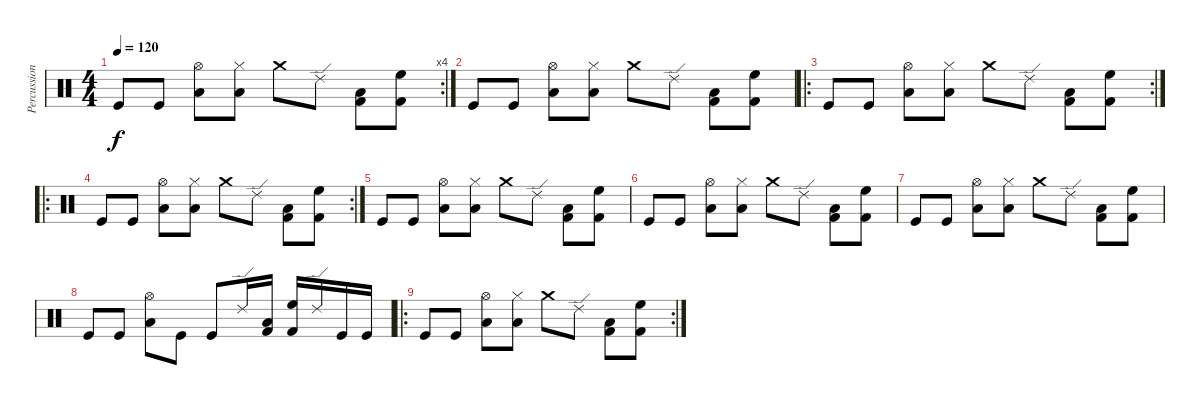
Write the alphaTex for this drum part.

\track ("Percussion" "Percussion") {instrument percussion}
\staff {score}
\articulation defaults
\rc 4
\ts (4 4)
\tempo 120
\clef neutral
\ks c "Kick (hit)".8{dy f} "Kick (hit)".8
("Low Tom (hit)" "Hi-Hat (open)").8 ("Low Tom (hit)" "Hi-Hat (closed)").8 "Crash medium (hit)".8 "Ride (edge) 2".8 ("Low Tom (hit)" "Kick (hit) 2").8 ("High Floor Tom (hit)" "Kick (hit) 2").8 |
"Kick (hit)".8 "Kick (hit)".8 ("Low Tom (hit)" "Hi-Hat (open)").8 ("Low Tom (hit)" "Hi-Hat (closed)").8 "Crash medium (hit)".8 "Ride (edge) 2".8 ("Low Tom (hit)" "Kick (hit) 2").8 ("High Floor Tom (hit)" "Kick (hit) 2").8 |
\ro
\rc 2 "Kick (hit)".8 "Kick (hit)".8
("Low Tom (hit)" "Hi-Hat (open)").8 ("Low Tom (hit)" "Hi-Hat (closed)").8 "Crash medium (hit)".8 "Ride (edge) 2".8 ("Low Tom (hit)" "Kick (hit) 2").8 ("High Floor Tom (hit)" "Kick (hit) 2").8 |
\ro
\rc 2 "Kick (hit)".8 "Kick (hit)".8
("Low Tom (hit)" "Hi-Hat (open)").8 ("Low Tom (hit)" "Hi-Hat (closed)").8 "Crash medium (hit)".8 "Ride (edge) 2".8 ("Low Tom (hit)" "Kick (hit) 2").8 ("High Floor Tom (hit)" "Kick (hit) 2").8 |
"Kick (hit)".8 "Kick (hit)".8 ("Low Tom (hit)" "Hi-Hat (open)").8 ("Low Tom (hit)" "Hi-Hat (closed)").8 "Crash medium (hit)".8 "Ride (edge) 2".8 ("Low Tom (hit)" "Kick (hit) 2").8 ("High Floor Tom (hit)" "Kick (hit) 2").8 |
"Kick (hit)".8 "Kick (hit)".8 ("Low Tom (hit)" "Hi-Hat (open)").8 ("Low Tom (hit)" "Hi-Hat (closed)").8 "Crash medium (hit)".8 "Ride (edge) 2".8 ("Low Tom (hit)" "Kick (hit) 2").8 ("High Floor Tom (hit)" "Kick (hit) 2").8 |
"Kick (hit)".8 "Kick (hit)".8 ("Low Tom (hit)" "Hi-Hat (open)").8 ("Low Tom (hit)" "Hi-Hat (closed)").8 "Crash medium (hit)".8 "Ride (edge) 2".8 ("Low Tom (hit)" "Kick (hit) 2").8 ("High Floor Tom (hit)" "Kick (hit) 2").8 |
"Kick (hit)".8 "Kick (hit)".8 ("Low Tom (hit)" "Hi-Hat (open)").8 "Kick (hit)".8 "Kick (hit)".8 "Ride (edge) 2".16 ("Low Tom (hit)" "Kick (hit) 2").16 ("High Floor Tom (hit)" "Kick (hit) 2").16 "Ride (edge) 2".16 "Kick (hit)".16 "Kick (hit)".16 |
\ro
\rc 2 "Kick (hit)".8 "Kick (hit)".8
("Low Tom (hit)" "Hi-Hat (open)").8 ("Low Tom (hit)" "Hi-Hat (closed)").8 "Crash medium (hit)".8 "Ride (edge) 2".8 ("Low Tom (hit)" "Kick (hit) 2").8 ("High Floor Tom (hit)" "Kick (hit) 2").8
